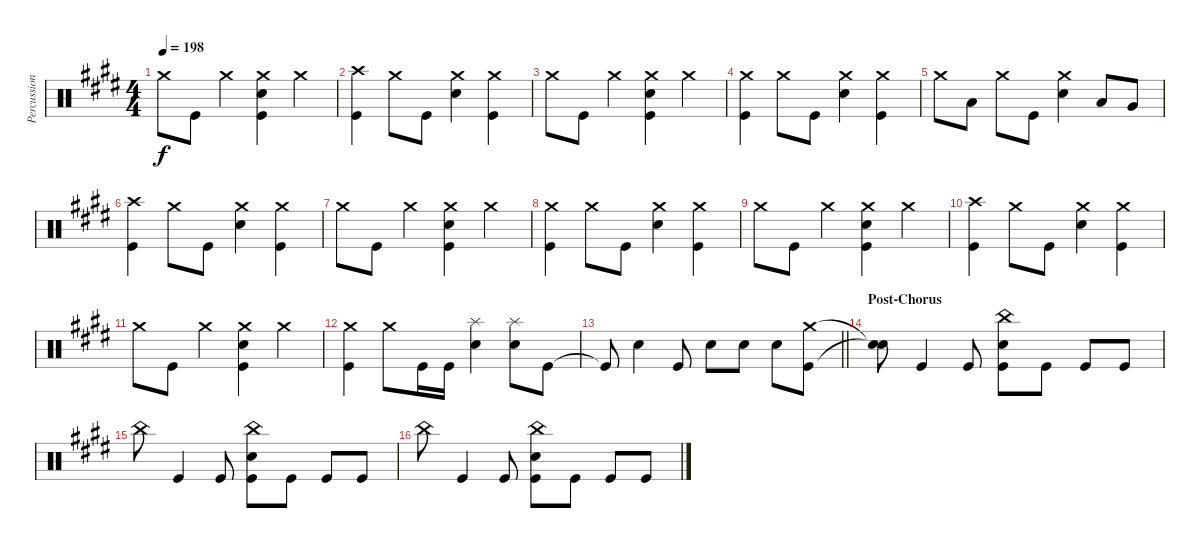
\track ("Percussion" "Percussion") {instrument percussion}
\staff {score}
\articulation defaults
\ts (4 4)
\tempo 198
\clef neutral
\ks e "Crash medium (hit)".8{dy f} "Kick (hit)".8 "Crash medium (hit)".4
("Crash medium (hit)" "Electric Snare (hit)" "Kick (hit)").4 "Crash medium (hit)".4 |
("Crash high (hit)" "Kick (hit)").4 "Crash medium (hit)".8 "Kick (hit)".8 ("Crash medium (hit)" "Electric Snare (hit)").4 ("Crash medium (hit)" "Kick (hit)").4 |
"Crash medium (hit)".8 "Kick (hit)".8 "Crash medium (hit)".4 ("Crash medium (hit)" "Electric Snare (hit)" "Kick (hit)").4 "Crash medium (hit)".4 |
("Crash medium (hit)" "Kick (hit)").4 "Crash medium (hit)".8 "Kick (hit)".8 ("Crash medium (hit)" "Electric Snare (hit)").4 ("Crash medium (hit)" "Kick (hit)").4 |
"Crash medium (hit)".8 "Low Tom (hit)".8 "Crash medium (hit)".8 "Kick (hit)".8 ("Crash medium (hit)" "Electric Snare (hit)").4 "Low Tom (hit)".8 "Very Low Tom (hit)".8 |
("Crash high (hit)" "Kick (hit)").4 "Crash medium (hit)".8 "Kick (hit)".8 ("Crash medium (hit)" "Electric Snare (hit)").4 ("Crash medium (hit)" "Kick (hit)").4 |
"Crash medium (hit)".8 "Kick (hit)".8 "Crash medium (hit)".4 ("Crash medium (hit)" "Electric Snare (hit)" "Kick (hit)").4 "Crash medium (hit)".4 |
("Crash medium (hit)" "Kick (hit)").4 "Crash medium (hit)".8 "Kick (hit)".8 ("Crash medium (hit)" "Electric Snare (hit)").4 ("Crash medium (hit)" "Kick (hit)").4 |
"Crash medium (hit)".8 "Kick (hit)".8 "Crash medium (hit)".4 ("Crash medium (hit)" "Electric Snare (hit)" "Kick (hit)").4 "Crash medium (hit)".4 |
("Crash high (hit)" "Kick (hit)").4 "Crash medium (hit)".8 "Kick (hit)".8 ("Crash medium (hit)" "Electric Snare (hit)").4 ("Crash medium (hit)" "Kick (hit)").4 |
"Crash medium (hit)".8 "Kick (hit)".8 "Crash medium (hit)".4 ("Crash medium (hit)" "Electric Snare (hit)" "Kick (hit)").4 "Crash medium (hit)".4 |
("Crash medium (hit)" "Kick (hit)").4 "Crash medium (hit)".8 "Kick (hit)".16 "Kick (hit)".16 ("Splash (hit)" "Electric Snare (hit)").4 ("Splash (hit)" "Electric Snare (hit)").8 "Kick (hit)".8 |
\barLineRight lightlight "Kick (hit)"{t}.8 "Electric Snare (hit)".4 "Kick (hit)".8 "Electric Snare (hit)".8 "Electric Snare (hit)".8 "Electric Snare (hit)".8
("Crash medium (hit)" "Kick (hit)").8 |
\section ("" "Post-Chorus")
("Snare (hit)"{t} "Snare (hit)"{t}).8 "Kick (hit)".4 "Kick (hit)".8 ("China (hit)" "Electric Snare (hit)" "Kick (hit)").8 "Kick (hit)".8 "Kick (hit)".8 "Kick (hit)".8 |
"China (hit)".8 "Kick (hit)".4 "Kick (hit)".8 ("China (hit)" "Electric Snare (hit)" "Kick (hit)").8 "Kick (hit)".8 "Kick (hit)".8 "Kick (hit)".8 |
"China (hit)".8 "Kick (hit)".4 "Kick (hit)".8 ("China (hit)" "Electric Snare (hit)" "Kick (hit)").8 "Kick (hit)".8 "Kick (hit)".8 "Kick (hit)".8
